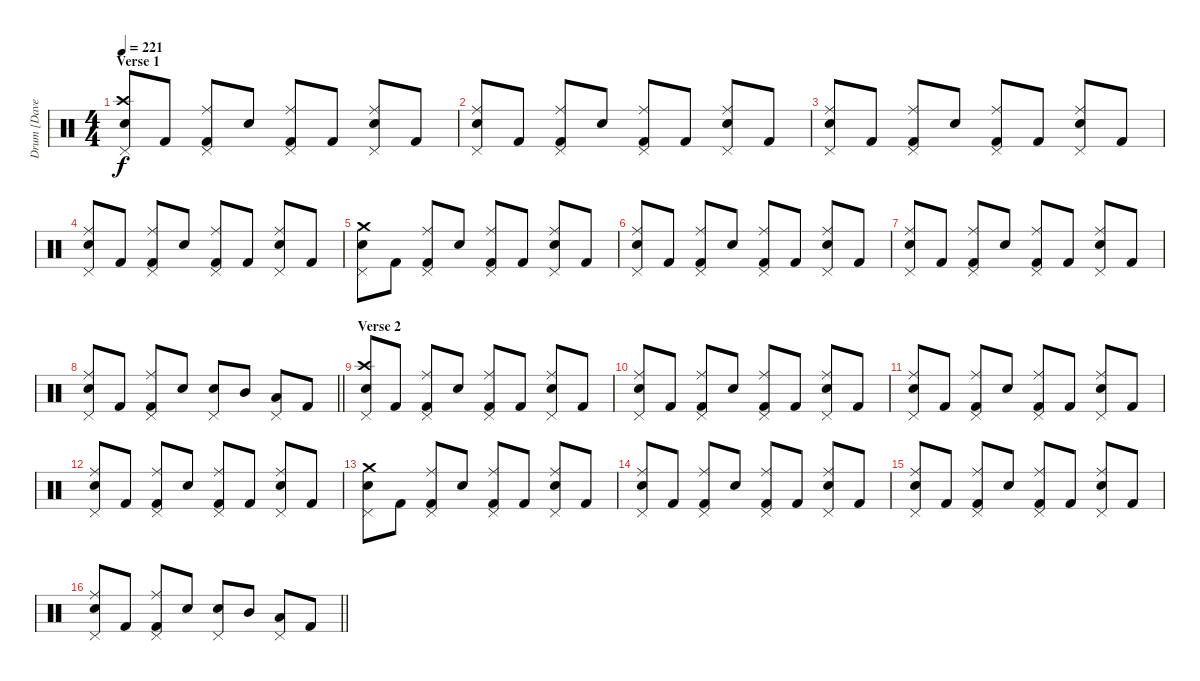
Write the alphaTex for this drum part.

\track ("Drum [Dave Grohl]" "Drum [Dave") {instrument percussion bank 255}
\staff {score}
\articulation defaults
\ts (4 4)
\section ("" "Verse 1")
\tempo 221
\clef neutral
\ks c
("Pedal Hi-Hat (hit)" "Crash high (hit)" "Snare (hit) 2").8{dy f} "Kick (hit) 2".8 ("Pedal Hi-Hat (hit)" "Ride (middle)" "Kick (hit) 2").8 "Snare (hit) 2".8 ("Pedal Hi-Hat (hit)" "Ride (middle)" "Kick (hit) 2").8 "Kick (hit) 2".8 ("Pedal Hi-Hat (hit)" "Ride (middle)" "Snare (hit) 2").8 "Kick (hit) 2".8 |
("Pedal Hi-Hat (hit)" "Ride (middle)" "Snare (hit) 2").8 "Kick (hit) 2".8 ("Pedal Hi-Hat (hit)" "Ride (middle)" "Kick (hit) 2").8 "Snare (hit) 2".8 ("Pedal Hi-Hat (hit)" "Ride (middle)" "Kick (hit) 2").8 "Kick (hit) 2".8 ("Pedal Hi-Hat (hit)" "Ride (middle)" "Snare (hit) 2").8 "Kick (hit) 2".8 |
("Pedal Hi-Hat (hit)" "Ride (middle)" "Snare (hit) 2").8 "Kick (hit) 2".8 ("Pedal Hi-Hat (hit)" "Ride (middle)" "Kick (hit) 2").8 "Snare (hit) 2".8 ("Pedal Hi-Hat (hit)" "Ride (middle)" "Kick (hit) 2").8 "Kick (hit) 2".8 ("Pedal Hi-Hat (hit)" "Ride (middle)" "Snare (hit) 2").8 "Kick (hit) 2".8 |
("Pedal Hi-Hat (hit)" "Ride (middle)" "Snare (hit) 2").8 "Kick (hit) 2".8 ("Pedal Hi-Hat (hit)" "Ride (middle)" "Kick (hit) 2").8 "Snare (hit) 2".8 ("Pedal Hi-Hat (hit)" "Ride (middle)" "Kick (hit) 2").8 "Kick (hit) 2".8 ("Pedal Hi-Hat (hit)" "Ride (middle)" "Snare (hit) 2").8 "Kick (hit) 2".8 |
("Pedal Hi-Hat (hit)" "Crash medium (hit)" "Snare (hit) 2").8 "Kick (hit) 2".8 ("Pedal Hi-Hat (hit)" "Ride (middle)" "Kick (hit) 2").8 "Snare (hit) 2".8 ("Pedal Hi-Hat (hit)" "Ride (middle)" "Kick (hit) 2").8 "Kick (hit) 2".8 ("Pedal Hi-Hat (hit)" "Ride (middle)" "Snare (hit) 2").8 "Kick (hit) 2".8 |
("Pedal Hi-Hat (hit)" "Ride (middle)" "Snare (hit) 2").8 "Kick (hit) 2".8 ("Pedal Hi-Hat (hit)" "Ride (middle)" "Kick (hit) 2").8 "Snare (hit) 2".8 ("Pedal Hi-Hat (hit)" "Ride (middle)" "Kick (hit) 2").8 "Kick (hit) 2".8 ("Pedal Hi-Hat (hit)" "Ride (middle)" "Snare (hit) 2").8 "Kick (hit) 2".8 |
("Pedal Hi-Hat (hit)" "Ride (middle)" "Snare (hit) 2").8 "Kick (hit) 2".8 ("Pedal Hi-Hat (hit)" "Ride (middle)" "Kick (hit) 2").8 "Snare (hit) 2".8 ("Pedal Hi-Hat (hit)" "Ride (middle)" "Kick (hit) 2").8 "Kick (hit) 2".8 ("Pedal Hi-Hat (hit)" "Ride (middle)" "Snare (hit) 2").8 "Kick (hit) 2".8 |
\barLineRight lightlight
("Pedal Hi-Hat (hit)" "Ride (middle)" "Snare (hit) 2").8 "Kick (hit) 2".8 ("Pedal Hi-Hat (hit)" "Ride (middle)" "Kick (hit) 2").8 "Snare (hit) 2".8 ("Pedal Hi-Hat (hit)" "Snare (hit) 2").8 "Mid Tom (hit)".8 ("Pedal Hi-Hat (hit)" "Low Tom (hit)").8 "Kick (hit) 2".8 |
\section ("" "Verse 2")
("Pedal Hi-Hat (hit)" "Crash high (hit)" "Snare (hit) 2").8 "Kick (hit) 2".8 ("Pedal Hi-Hat (hit)" "Ride (middle)" "Kick (hit) 2").8 "Snare (hit) 2".8 ("Pedal Hi-Hat (hit)" "Ride (middle)" "Kick (hit) 2").8 "Kick (hit) 2".8 ("Pedal Hi-Hat (hit)" "Ride (middle)" "Snare (hit) 2").8 "Kick (hit) 2".8 |
("Pedal Hi-Hat (hit)" "Ride (middle)" "Snare (hit) 2").8 "Kick (hit) 2".8 ("Pedal Hi-Hat (hit)" "Ride (middle)" "Kick (hit) 2").8 "Snare (hit) 2".8 ("Pedal Hi-Hat (hit)" "Ride (middle)" "Kick (hit) 2").8 "Kick (hit) 2".8 ("Pedal Hi-Hat (hit)" "Ride (middle)" "Snare (hit) 2").8 "Kick (hit) 2".8 |
("Pedal Hi-Hat (hit)" "Ride (middle)" "Snare (hit) 2").8 "Kick (hit) 2".8 ("Pedal Hi-Hat (hit)" "Ride (middle)" "Kick (hit) 2").8 "Snare (hit) 2".8 ("Pedal Hi-Hat (hit)" "Ride (middle)" "Kick (hit) 2").8 "Kick (hit) 2".8 ("Pedal Hi-Hat (hit)" "Ride (middle)" "Snare (hit) 2").8 "Kick (hit) 2".8 |
("Pedal Hi-Hat (hit)" "Ride (middle)" "Snare (hit) 2").8 "Kick (hit) 2".8 ("Pedal Hi-Hat (hit)" "Ride (middle)" "Kick (hit) 2").8 "Snare (hit) 2".8 ("Pedal Hi-Hat (hit)" "Ride (middle)" "Kick (hit) 2").8 "Kick (hit) 2".8 ("Pedal Hi-Hat (hit)" "Ride (middle)" "Snare (hit) 2").8 "Kick (hit) 2".8 |
("Pedal Hi-Hat (hit)" "Crash medium (hit)" "Snare (hit) 2").8 "Kick (hit) 2".8 ("Pedal Hi-Hat (hit)" "Ride (middle)" "Kick (hit) 2").8 "Snare (hit) 2".8 ("Pedal Hi-Hat (hit)" "Ride (middle)" "Kick (hit) 2").8 "Kick (hit) 2".8 ("Pedal Hi-Hat (hit)" "Ride (middle)" "Snare (hit) 2").8 "Kick (hit) 2".8 |
("Pedal Hi-Hat (hit)" "Ride (middle)" "Snare (hit) 2").8 "Kick (hit) 2".8 ("Pedal Hi-Hat (hit)" "Ride (middle)" "Kick (hit) 2").8 "Snare (hit) 2".8 ("Pedal Hi-Hat (hit)" "Ride (middle)" "Kick (hit) 2").8 "Kick (hit) 2".8 ("Pedal Hi-Hat (hit)" "Ride (middle)" "Snare (hit) 2").8 "Kick (hit) 2".8 |
("Pedal Hi-Hat (hit)" "Ride (middle)" "Snare (hit) 2").8 "Kick (hit) 2".8 ("Pedal Hi-Hat (hit)" "Ride (middle)" "Kick (hit) 2").8 "Snare (hit) 2".8 ("Pedal Hi-Hat (hit)" "Ride (middle)" "Kick (hit) 2").8 "Kick (hit) 2".8 ("Pedal Hi-Hat (hit)" "Ride (middle)" "Snare (hit) 2").8 "Kick (hit) 2".8 |
\barLineRight lightlight
("Pedal Hi-Hat (hit)" "Ride (middle)" "Snare (hit) 2").8 "Kick (hit) 2".8 ("Pedal Hi-Hat (hit)" "Ride (middle)" "Kick (hit) 2").8 "Snare (hit) 2".8 ("Pedal Hi-Hat (hit)" "Snare (hit) 2").8 "Mid Tom (hit)".8 ("Pedal Hi-Hat (hit)" "Low Tom (hit)").8 "Kick (hit) 2".8
